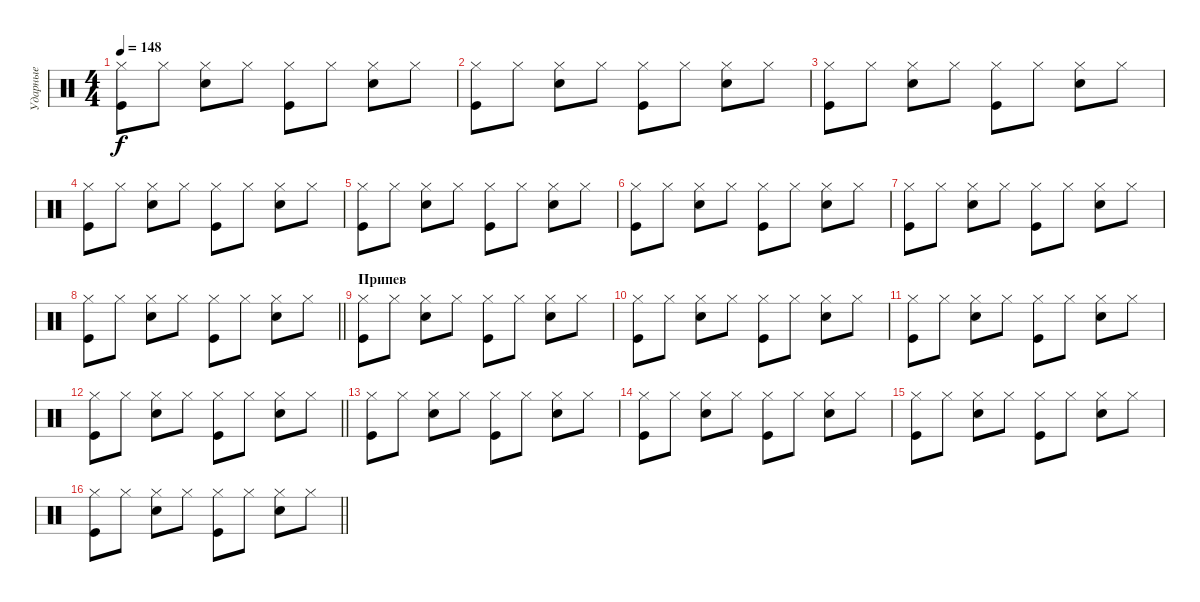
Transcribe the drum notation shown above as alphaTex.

\track ("Ударные" "Ударные") {instrument percussion}
\staff {score}
\articulation defaults
\ts (4 4)
\tempo 148
\clef neutral
\ks c
("Hi-Hat (closed)" "Kick (hit)").8{dy f} "Hi-Hat (closed)".8 ("Hi-Hat (closed)" "Snare (hit) 2").8 "Hi-Hat (closed)".8 ("Hi-Hat (closed)" "Kick (hit)").8 "Hi-Hat (closed)".8 ("Hi-Hat (closed)" "Snare (hit) 2").8 "Hi-Hat (closed)".8 |
("Hi-Hat (closed)" "Kick (hit)").8 "Hi-Hat (closed)".8 ("Hi-Hat (closed)" "Snare (hit) 2").8 "Hi-Hat (closed)".8 ("Hi-Hat (closed)" "Kick (hit)").8 "Hi-Hat (closed)".8 ("Hi-Hat (closed)" "Snare (hit) 2").8 "Hi-Hat (closed)".8 |
("Hi-Hat (closed)" "Kick (hit)").8 "Hi-Hat (closed)".8 ("Hi-Hat (closed)" "Snare (hit) 2").8 "Hi-Hat (closed)".8 ("Hi-Hat (closed)" "Kick (hit)").8 "Hi-Hat (closed)".8 ("Hi-Hat (closed)" "Snare (hit) 2").8 "Hi-Hat (closed)".8 |
("Hi-Hat (closed)" "Kick (hit)").8 "Hi-Hat (closed)".8 ("Hi-Hat (closed)" "Snare (hit) 2").8 "Hi-Hat (closed)".8 ("Hi-Hat (closed)" "Kick (hit)").8 "Hi-Hat (closed)".8 ("Hi-Hat (closed)" "Snare (hit) 2").8 "Hi-Hat (closed)".8 |
("Hi-Hat (closed)" "Kick (hit)").8 "Hi-Hat (closed)".8 ("Hi-Hat (closed)" "Snare (hit) 2").8 "Hi-Hat (closed)".8 ("Hi-Hat (closed)" "Kick (hit)").8 "Hi-Hat (closed)".8 ("Hi-Hat (closed)" "Snare (hit) 2").8 "Hi-Hat (closed)".8 |
("Hi-Hat (closed)" "Kick (hit)").8 "Hi-Hat (closed)".8 ("Hi-Hat (closed)" "Snare (hit) 2").8 "Hi-Hat (closed)".8 ("Hi-Hat (closed)" "Kick (hit)").8 "Hi-Hat (closed)".8 ("Hi-Hat (closed)" "Snare (hit) 2").8 "Hi-Hat (closed)".8 |
("Hi-Hat (closed)" "Kick (hit)").8 "Hi-Hat (closed)".8 ("Hi-Hat (closed)" "Snare (hit) 2").8 "Hi-Hat (closed)".8 ("Hi-Hat (closed)" "Kick (hit)").8 "Hi-Hat (closed)".8 ("Hi-Hat (closed)" "Snare (hit) 2").8 "Hi-Hat (closed)".8 |
\barLineRight lightlight
("Hi-Hat (closed)" "Kick (hit)").8 "Hi-Hat (closed)".8 ("Hi-Hat (closed)" "Snare (hit) 2").8 "Hi-Hat (closed)".8 ("Hi-Hat (closed)" "Kick (hit)").8 "Hi-Hat (closed)".8 ("Hi-Hat (closed)" "Snare (hit) 2").8 "Hi-Hat (closed)".8 |
\section ("" "Припев")
("Hi-Hat (closed)" "Kick (hit)").8 "Hi-Hat (closed)".8 ("Hi-Hat (closed)" "Snare (hit) 2").8 "Hi-Hat (closed)".8 ("Hi-Hat (closed)" "Kick (hit)").8 "Hi-Hat (closed)".8 ("Hi-Hat (closed)" "Snare (hit) 2").8 "Hi-Hat (closed)".8 |
("Hi-Hat (closed)" "Kick (hit)").8 "Hi-Hat (closed)".8 ("Hi-Hat (closed)" "Snare (hit) 2").8 "Hi-Hat (closed)".8 ("Hi-Hat (closed)" "Kick (hit)").8 "Hi-Hat (closed)".8 ("Hi-Hat (closed)" "Snare (hit) 2").8 "Hi-Hat (closed)".8 |
("Hi-Hat (closed)" "Kick (hit)").8 "Hi-Hat (closed)".8 ("Hi-Hat (closed)" "Snare (hit) 2").8 "Hi-Hat (closed)".8 ("Hi-Hat (closed)" "Kick (hit)").8 "Hi-Hat (closed)".8 ("Hi-Hat (closed)" "Snare (hit) 2").8 "Hi-Hat (closed)".8 |
\barLineRight lightlight
("Hi-Hat (closed)" "Kick (hit)").8 "Hi-Hat (closed)".8 ("Hi-Hat (closed)" "Snare (hit) 2").8 "Hi-Hat (closed)".8 ("Hi-Hat (closed)" "Kick (hit)").8 "Hi-Hat (closed)".8 ("Hi-Hat (closed)" "Snare (hit) 2").8 "Hi-Hat (closed)".8 |
("Hi-Hat (closed)" "Kick (hit)").8 "Hi-Hat (closed)".8 ("Hi-Hat (closed)" "Snare (hit) 2").8 "Hi-Hat (closed)".8 ("Hi-Hat (closed)" "Kick (hit)").8 "Hi-Hat (closed)".8 ("Hi-Hat (closed)" "Snare (hit) 2").8 "Hi-Hat (closed)".8 |
("Hi-Hat (closed)" "Kick (hit)").8 "Hi-Hat (closed)".8 ("Hi-Hat (closed)" "Snare (hit) 2").8 "Hi-Hat (closed)".8 ("Hi-Hat (closed)" "Kick (hit)").8 "Hi-Hat (closed)".8 ("Hi-Hat (closed)" "Snare (hit) 2").8 "Hi-Hat (closed)".8 |
("Hi-Hat (closed)" "Kick (hit)").8 "Hi-Hat (closed)".8 ("Hi-Hat (closed)" "Snare (hit) 2").8 "Hi-Hat (closed)".8 ("Hi-Hat (closed)" "Kick (hit)").8 "Hi-Hat (closed)".8 ("Hi-Hat (closed)" "Snare (hit) 2").8 "Hi-Hat (closed)".8 |
\barLineRight lightlight
("Hi-Hat (closed)" "Kick (hit)").8 "Hi-Hat (closed)".8 ("Hi-Hat (closed)" "Snare (hit) 2").8 "Hi-Hat (closed)".8 ("Hi-Hat (closed)" "Kick (hit)").8 "Hi-Hat (closed)".8 ("Hi-Hat (closed)" "Snare (hit) 2").8 "Hi-Hat (closed)".8
